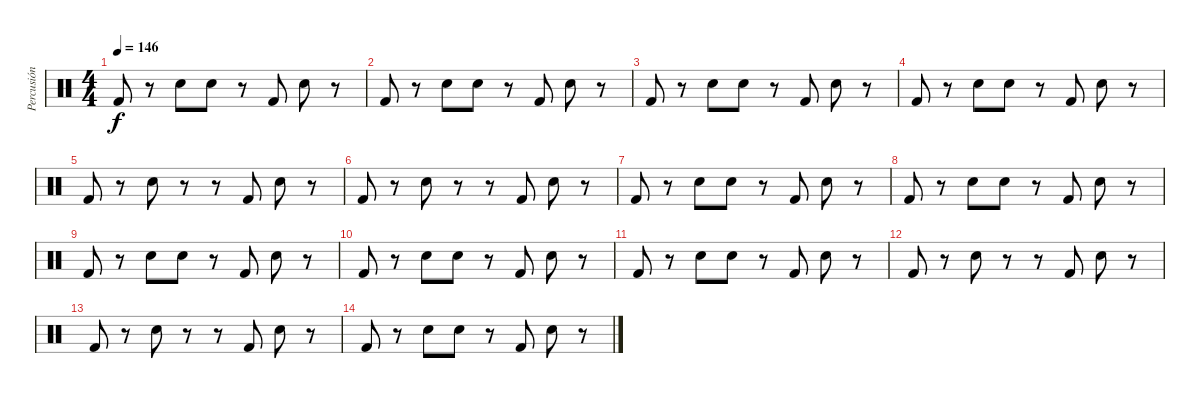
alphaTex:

\track ("Percusión" "Percusión") {instrument percussion}
\staff {score}
\articulation defaults
\ts (4 4)
\tempo 146
\clef neutral
\ks c "Kick (hit) 2".8{dy f}
r.8 "Snare (hit) 2".8 "Snare (hit) 2".8 r.8 "Kick (hit) 2".8 "Snare (hit) 2".8 r.8 |
"Kick (hit) 2".8 r.8 "Snare (hit) 2".8 "Snare (hit) 2".8 r.8 "Kick (hit) 2".8 "Snare (hit) 2".8 r.8 |
"Kick (hit) 2".8 r.8 "Snare (hit) 2".8 "Snare (hit) 2".8 r.8 "Kick (hit) 2".8 "Snare (hit) 2".8 r.8 |
"Kick (hit) 2".8 r.8 "Snare (hit) 2".8 "Snare (hit) 2".8 r.8 "Kick (hit) 2".8 "Snare (hit) 2".8 r.8 |
"Kick (hit) 2".8 r.8 "Snare (hit) 2".8 r.8 r.8 "Kick (hit) 2".8 "Snare (hit) 2".8 r.8 |
"Kick (hit) 2".8 r.8 "Snare (hit) 2".8 r.8 r.8 "Kick (hit) 2".8 "Snare (hit) 2".8 r.8 |
"Kick (hit) 2".8 r.8 "Snare (hit) 2".8 "Snare (hit) 2".8 r.8 "Kick (hit) 2".8 "Snare (hit) 2".8 r.8 |
"Kick (hit) 2".8 r.8 "Snare (hit) 2".8 "Snare (hit) 2".8 r.8 "Kick (hit) 2".8 "Snare (hit) 2".8 r.8 |
"Kick (hit) 2".8 r.8 "Snare (hit) 2".8 "Snare (hit) 2".8 r.8 "Kick (hit) 2".8 "Snare (hit) 2".8 r.8 |
"Kick (hit) 2".8 r.8 "Snare (hit) 2".8 "Snare (hit) 2".8 r.8 "Kick (hit) 2".8 "Snare (hit) 2".8 r.8 |
"Kick (hit) 2".8 r.8 "Snare (hit) 2".8 "Snare (hit) 2".8 r.8 "Kick (hit) 2".8 "Snare (hit) 2".8 r.8 |
"Kick (hit) 2".8 r.8 "Snare (hit) 2".8 r.8 r.8 "Kick (hit) 2".8 "Snare (hit) 2".8 r.8 |
"Kick (hit) 2".8 r.8 "Snare (hit) 2".8 r.8 r.8 "Kick (hit) 2".8 "Snare (hit) 2".8 r.8 |
"Kick (hit) 2".8 r.8 "Snare (hit) 2".8 "Snare (hit) 2".8 r.8 "Kick (hit) 2".8 "Snare (hit) 2".8 r.8
